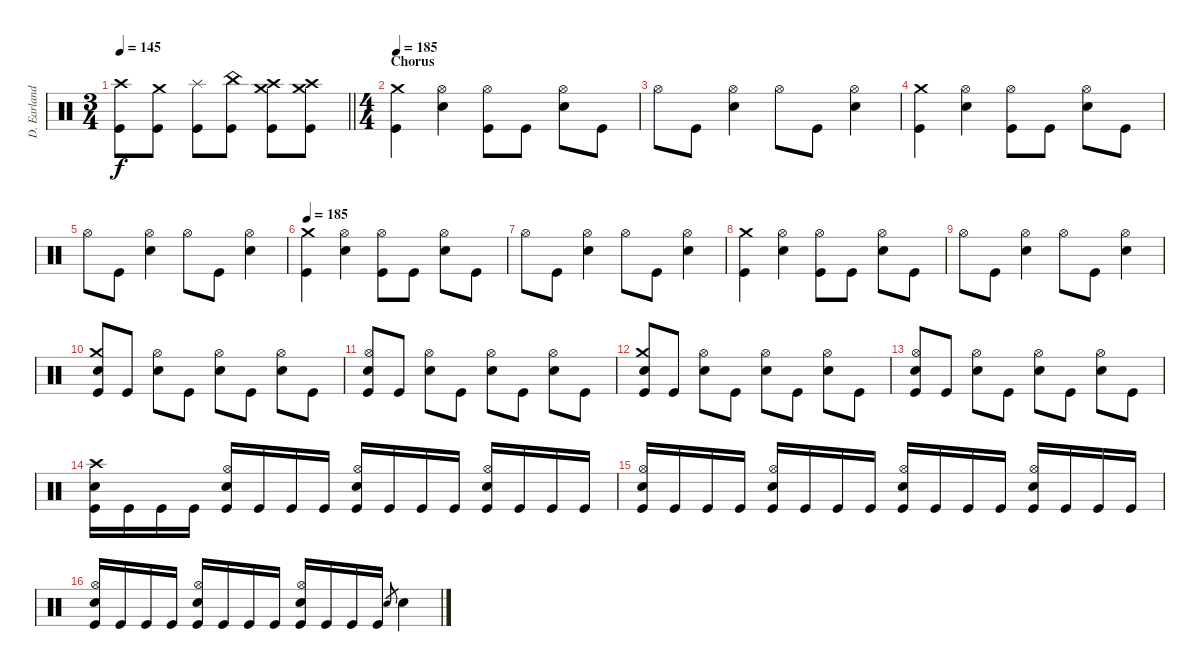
\track ("D. Earlanddson" "D. Earland") {instrument percussion}
\staff {score}
\articulation defaults
\ts (3 4)
\tempo 145
\clef neutral
\barLineRight lightlight
\ks c
("Crash high (hit)" "Kick (hit)").8{dy f} ("Crash medium (hit)" "Kick (hit)").8 ("Splash (hit)" "Kick (hit)").8 ("China (hit)" "Kick (hit)").8 ("Crash medium (hit)" "Crash high (hit)" "Kick (hit)").8 ("Crash medium (hit)" "Crash high (hit)" "Kick (hit)").8 |
\ts (4 4)
\section ("" "Chorus")
\tempo 185
("Crash medium (hit)" "Kick (hit)").4 ("Hi-Hat (open)" "Electric Snare (hit)").4 ("Hi-Hat (open)" "Kick (hit)").8 "Kick (hit)".8 ("Hi-Hat (open)" "Electric Snare (hit)").8 "Kick (hit)".8 |
"Hi-Hat (open)".8 "Kick (hit)".8 ("Hi-Hat (open)" "Electric Snare (hit)").4 "Hi-Hat (open)".8 "Kick (hit)".8 ("Hi-Hat (open)" "Electric Snare (hit)").4 |
("Crash medium (hit)" "Kick (hit)").4 ("Hi-Hat (open)" "Electric Snare (hit)").4 ("Hi-Hat (open)" "Kick (hit)").8 "Kick (hit)".8 ("Hi-Hat (open)" "Electric Snare (hit)").8 "Kick (hit)".8 |
"Hi-Hat (open)".8 "Kick (hit)".8 ("Hi-Hat (open)" "Electric Snare (hit)").4 "Hi-Hat (open)".8 "Kick (hit)".8 ("Hi-Hat (open)" "Electric Snare (hit)").4 |
\tempo 185
("Crash medium (hit)" "Kick (hit)").4 ("Hi-Hat (open)" "Electric Snare (hit)").4 ("Hi-Hat (open)" "Kick (hit)").8 "Kick (hit)".8 ("Hi-Hat (open)" "Electric Snare (hit)").8 "Kick (hit)".8 |
"Hi-Hat (open)".8 "Kick (hit)".8 ("Hi-Hat (open)" "Electric Snare (hit)").4 "Hi-Hat (open)".8 "Kick (hit)".8 ("Hi-Hat (open)" "Electric Snare (hit)").4 |
("Crash medium (hit)" "Kick (hit)").4 ("Hi-Hat (open)" "Electric Snare (hit)").4 ("Hi-Hat (open)" "Kick (hit)").8 "Kick (hit)".8 ("Hi-Hat (open)" "Electric Snare (hit)").8 "Kick (hit)".8 |
"Hi-Hat (open)".8 "Kick (hit)".8 ("Hi-Hat (open)" "Electric Snare (hit)").4 "Hi-Hat (open)".8 "Kick (hit)".8 ("Hi-Hat (open)" "Electric Snare (hit)").4 |
("Crash medium (hit)" "Electric Snare (hit)" "Kick (hit)").8 "Kick (hit)".8 ("Hi-Hat (open)" "Electric Snare (hit)").8 "Kick (hit)".8 ("Hi-Hat (open)" "Electric Snare (hit)").8 "Kick (hit)".8 ("Hi-Hat (open)" "Electric Snare (hit)").8 "Kick (hit)".8 |
("Hi-Hat (open)" "Electric Snare (hit)" "Kick (hit)").8 "Kick (hit)".8 ("Hi-Hat (open)" "Electric Snare (hit)").8 "Kick (hit)".8 ("Hi-Hat (open)" "Electric Snare (hit)").8 "Kick (hit)".8 ("Hi-Hat (open)" "Electric Snare (hit)").8 "Kick (hit)".8 |
("Crash medium (hit)" "Electric Snare (hit)" "Kick (hit)").8 "Kick (hit)".8 ("Hi-Hat (open)" "Electric Snare (hit)").8 "Kick (hit)".8 ("Hi-Hat (open)" "Electric Snare (hit)").8 "Kick (hit)".8 ("Hi-Hat (open)" "Electric Snare (hit)").8 "Kick (hit)".8 |
("Hi-Hat (open)" "Electric Snare (hit)" "Kick (hit)").8 "Kick (hit)".8 ("Hi-Hat (open)" "Electric Snare (hit)").8 "Kick (hit)".8 ("Hi-Hat (open)" "Electric Snare (hit)").8 "Kick (hit)".8 ("Hi-Hat (open)" "Electric Snare (hit)").8 "Kick (hit)".8 |
("Crash high (hit)" "Electric Snare (hit)" "Kick (hit)").16 "Kick (hit)".16 "Kick (hit)".16 "Kick (hit)".16 ("Hi-Hat (open)" "Electric Snare (hit)" "Kick (hit)").16 "Kick (hit)".16 "Kick (hit)".16 "Kick (hit)".16 ("Hi-Hat (open)" "Electric Snare (hit)" "Kick (hit)").16 "Kick (hit)".16 "Kick (hit)".16 "Kick (hit)".16 ("Hi-Hat (open)" "Electric Snare (hit)" "Kick (hit)").16 "Kick (hit)".16 "Kick (hit)".16 "Kick (hit)".16 |
("Hi-Hat (open)" "Electric Snare (hit)" "Kick (hit)").16 "Kick (hit)".16 "Kick (hit)".16 "Kick (hit)".16 ("Hi-Hat (open)" "Electric Snare (hit)" "Kick (hit)").16 "Kick (hit)".16 "Kick (hit)".16 "Kick (hit)".16 ("Hi-Hat (open)" "Electric Snare (hit)" "Kick (hit)").16 "Kick (hit)".16 "Kick (hit)".16 "Kick (hit)".16 ("Hi-Hat (open)" "Electric Snare (hit)" "Kick (hit)").16 "Kick (hit)".16 "Kick (hit)".16 "Kick (hit)".16 |
("Hi-Hat (open)" "Electric Snare (hit)" "Kick (hit)").16 "Kick (hit)".16 "Kick (hit)".16 "Kick (hit)".16 ("Hi-Hat (open)" "Electric Snare (hit)" "Kick (hit)").16 "Kick (hit)".16 "Kick (hit)".16 "Kick (hit)".16 ("Hi-Hat (open)" "Electric Snare (hit)" "Kick (hit)").16 "Kick (hit)".16 "Kick (hit)".16 "Kick (hit)".16 "Electric Snare (hit)".8{gr} "Electric Snare (hit)".4
